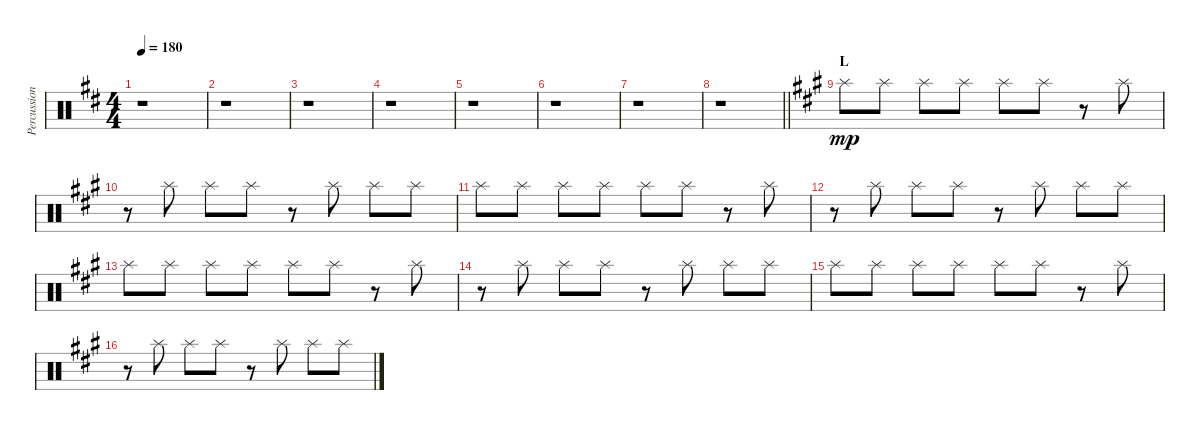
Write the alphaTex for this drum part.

\track ("Percussion" "Percussion") {instrument percussion}
\staff {score}
\articulation defaults
\ts (4 4)
\tempo 180
\clef neutral
\ks d
r.1{dy mp} |
r.1 |
r.1 |
r.1 |
r.1 |
r.1 |
r.1 |
\barLineRight lightlight
r.1 |
\section ("" "L")
\ks a "Splash (hit)".8 "Splash (hit)".8 "Splash (hit)".8 "Splash (hit)".8 "Splash (hit)".8 "Splash (hit)".8
r.8 "Splash (hit)".8 |
r.8 "Splash (hit)".8 "Splash (hit)".8 "Splash (hit)".8 r.8 "Splash (hit)".8 "Splash (hit)".8 "Splash (hit)".8 |
"Splash (hit)".8 "Splash (hit)".8 "Splash (hit)".8 "Splash (hit)".8 "Splash (hit)".8 "Splash (hit)".8 r.8 "Splash (hit)".8 |
r.8 "Splash (hit)".8 "Splash (hit)".8 "Splash (hit)".8 r.8 "Splash (hit)".8 "Splash (hit)".8 "Splash (hit)".8 |
"Splash (hit)".8 "Splash (hit)".8 "Splash (hit)".8 "Splash (hit)".8 "Splash (hit)".8 "Splash (hit)".8 r.8 "Splash (hit)".8 |
r.8 "Splash (hit)".8 "Splash (hit)".8 "Splash (hit)".8 r.8 "Splash (hit)".8 "Splash (hit)".8 "Splash (hit)".8 |
"Splash (hit)".8 "Splash (hit)".8 "Splash (hit)".8 "Splash (hit)".8 "Splash (hit)".8 "Splash (hit)".8 r.8 "Splash (hit)".8 |
r.8 "Splash (hit)".8 "Splash (hit)".8 "Splash (hit)".8 r.8 "Splash (hit)".8 "Splash (hit)".8 "Splash (hit)".8
